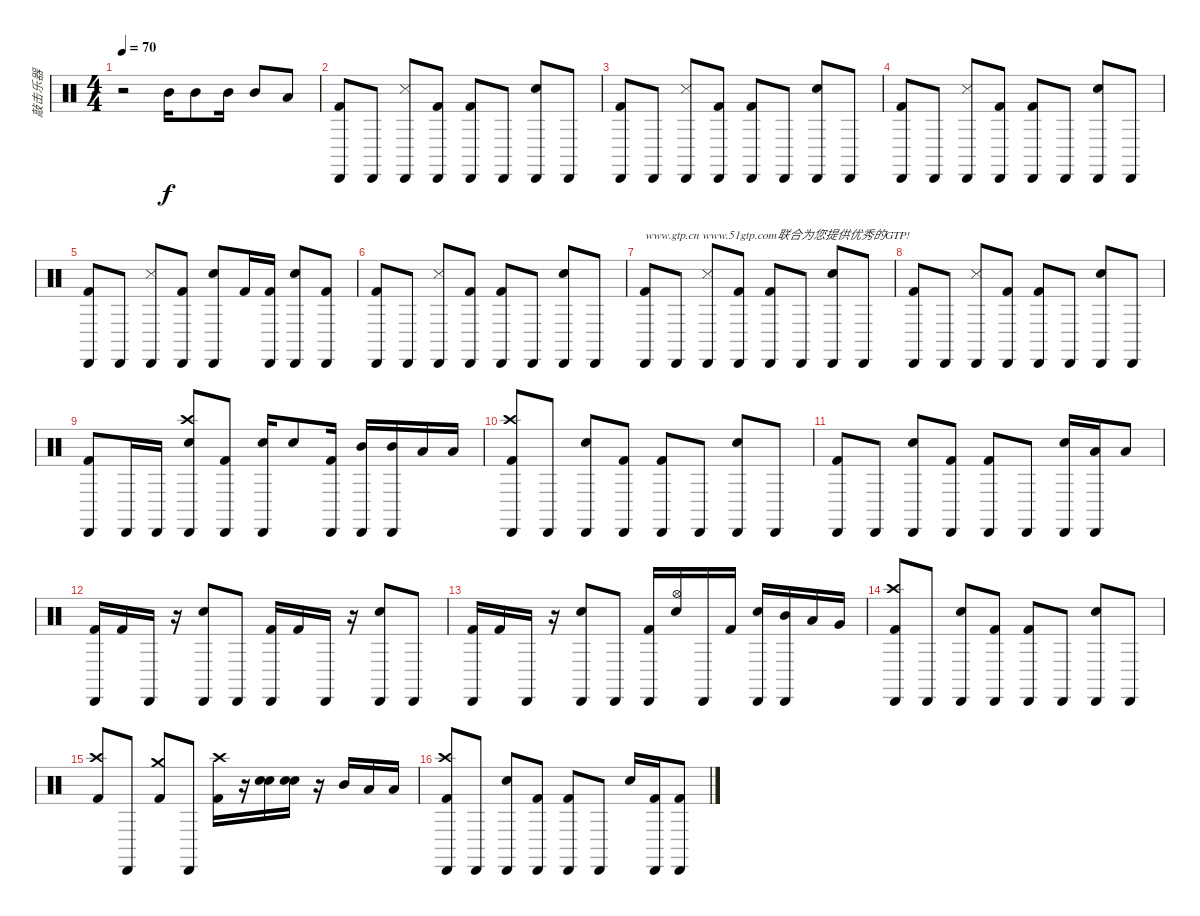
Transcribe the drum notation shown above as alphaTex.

\track ("敲击乐器" "敲击乐器") {instrument percussion}
\staff {score}
\articulation defaults
\ts (4 4)
\tempo 70
\clef neutral
\ks c
r.2{dy f} "Mid Tom (hit)".16 "Mid Tom (hit)".8 "Mid Tom (hit)".16 "Mid Tom (hit)".8 "Low Tom (hit)".8 |
("Cabasa (hit)" "Kick (hit) 2").8 "Cabasa (hit)".8 ("Cabasa (hit)" "Snare (side stick) 3").8 ("Cabasa (hit)" "Kick (hit) 2").8 ("Cabasa (hit)" "Kick (hit) 2").8 "Cabasa (hit)".8 ("Cabasa (hit)" "Electric Snare (hit)").8 "Cabasa (hit)".8 |
("Cabasa (hit)" "Kick (hit) 2").8 "Cabasa (hit)".8 ("Cabasa (hit)" "Snare (side stick) 3").8 ("Cabasa (hit)" "Kick (hit) 2").8 ("Cabasa (hit)" "Kick (hit) 2").8 "Cabasa (hit)".8 ("Cabasa (hit)" "Electric Snare (hit)").8 "Cabasa (hit)".8 |
("Cabasa (hit)" "Kick (hit) 2").8 "Cabasa (hit)".8 ("Cabasa (hit)" "Snare (side stick) 3").8 ("Cabasa (hit)" "Kick (hit) 2").8 ("Cabasa (hit)" "Kick (hit) 2").8 "Cabasa (hit)".8 ("Cabasa (hit)" "Electric Snare (hit)").8 "Cabasa (hit)".8 |
("Cabasa (hit)" "Kick (hit) 2").8 "Cabasa (hit)".8 ("Cabasa (hit)" "Snare (side stick) 3").8 ("Cabasa (hit)" "Kick (hit) 2").8 ("Cabasa (hit)" "Electric Snare (hit)").8 "Kick (hit) 2".16 ("Cabasa (hit)" "Kick (hit) 2").16 ("Cabasa (hit)" "Electric Snare (hit)").8 ("Cabasa (hit)" "Kick (hit) 2").8 |
("Cabasa (hit)" "Kick (hit) 2").8 "Cabasa (hit)".8 ("Cabasa (hit)" "Snare (side stick) 3").8 ("Cabasa (hit)" "Kick (hit) 2").8 ("Cabasa (hit)" "Kick (hit) 2").8 "Cabasa (hit)".8 ("Cabasa (hit)" "Electric Snare (hit)").8 "Cabasa (hit)".8 |
("Cabasa (hit)" "Kick (hit) 2").8{txt "www.gtp.cn www.51gtp.com联合为您提供优秀的GTP!"} "Cabasa (hit)".8 ("Cabasa (hit)" "Snare (side stick) 3").8 ("Cabasa (hit)" "Kick (hit) 2").8 ("Cabasa (hit)" "Kick (hit) 2").8 "Cabasa (hit)".8 ("Cabasa (hit)" "Electric Snare (hit)").8 "Cabasa (hit)".8 |
("Cabasa (hit)" "Kick (hit) 2").8 "Cabasa (hit)".8 ("Cabasa (hit)" "Snare (side stick) 3").8 ("Cabasa (hit)" "Kick (hit) 2").8 ("Cabasa (hit)" "Kick (hit) 2").8 "Cabasa (hit)".8 ("Cabasa (hit)" "Electric Snare (hit)").8 "Cabasa (hit)".8 |
("Cabasa (hit)" "Kick (hit) 2").8 "Cabasa (hit)".16 "Cabasa (hit)".16 ("Crash high (hit)" "Cabasa (hit)" "Electric Snare (hit)").8 ("Cabasa (hit)" "Kick (hit) 2").8 ("Cabasa (hit)" "Electric Snare (hit)").16 "Electric Snare (hit)".8 ("Cabasa (hit)" "Kick (hit) 2").16 ("Cabasa (hit)" "Mid Tom (hit)").16 ("Cabasa (hit)" "Mid Tom (hit)").16 "Low Tom (hit)".16 "Low Tom (hit)".16 |
("Crash high (hit)" "Cabasa (hit)" "Kick (hit) 2").8 "Cabasa (hit)".8 ("Cabasa (hit)" "Electric Snare (hit)").8 ("Cabasa (hit)" "Kick (hit) 2").8 ("Cabasa (hit)" "Kick (hit) 2").8 "Cabasa (hit)".8 ("Cabasa (hit)" "Electric Snare (hit)").8 "Cabasa (hit)".8 |
("Cabasa (hit)" "Kick (hit) 2").8 "Cabasa (hit)".8 ("Cabasa (hit)" "Electric Snare (hit)").8 ("Cabasa (hit)" "Kick (hit) 2").8 ("Cabasa (hit)" "Kick (hit) 2").8 "Cabasa (hit)".8 ("Cabasa (hit)" "Electric Snare (hit)").16 ("Cabasa (hit)" "Low Tom (hit)").16 "Low Tom (hit)".8 |
("Cabasa (hit)" "Kick (hit) 2").16 "Kick (hit) 2".16 "Cabasa (hit)".16 r.16 ("Cabasa (hit)" "Electric Snare (hit)").8 "Cabasa (hit)".8 ("Cabasa (hit)" "Kick (hit) 2").16 "Kick (hit) 2".16 "Cabasa (hit)".16 r.16 ("Cabasa (hit)" "Electric Snare (hit)").8 "Cabasa (hit)".8 |
("Cabasa (hit)" "Kick (hit) 2").16 "Kick (hit) 2".16 "Cabasa (hit)".16 r.16 ("Cabasa (hit)" "Electric Snare (hit)").8 "Cabasa (hit)".8 ("Cabasa (hit)" "Kick (hit) 2").16 ("Hi-Hat (open)" "Electric Snare (hit)").16 "Cabasa (hit)".16 "Kick (hit) 2".16 ("Cabasa (hit)" "Electric Snare (hit)").16 ("Cabasa (hit)" "Mid Tom (hit)").16 "Low Tom (hit)".16 "Very Low Tom (hit)".16 |
("Crash high (hit)" "Cabasa (hit)" "Kick (hit) 2").8 "Cabasa (hit)".8 ("Cabasa (hit)" "Electric Snare (hit)").8 ("Cabasa (hit)" "Kick (hit) 2").8 ("Cabasa (hit)" "Kick (hit) 2").8 "Cabasa (hit)".8 ("Cabasa (hit)" "Electric Snare (hit)").8 "Cabasa (hit)".8 |
("Crash high (hit)" "Kick (hit) 2").8 "Cabasa (hit)".8 ("Crash medium (hit)" "Kick (hit) 2").8 "Cabasa (hit)".8 ("Crash high (hit)" "Kick (hit) 2").16 r.16 ("Electric Snare (hit)" "Electric Snare (hit)").16 ("Electric Snare (hit)" "Electric Snare (hit)").16 r.16 "Mid Tom (hit)".16 "Low Tom (hit)".16 "Low Tom (hit)".16 |
("Crash high (hit)" "Cabasa (hit)" "Kick (hit) 2").8 "Cabasa (hit)".8 ("Cabasa (hit)" "Electric Snare (hit)").8 ("Cabasa (hit)" "Kick (hit) 2").8 ("Cabasa (hit)" "Kick (hit) 2").8 "Cabasa (hit)".8 "Electric Snare (hit)".16 ("Cabasa (hit)" "Kick (hit) 2").16 ("Cabasa (hit)" "Kick (hit) 2").8
